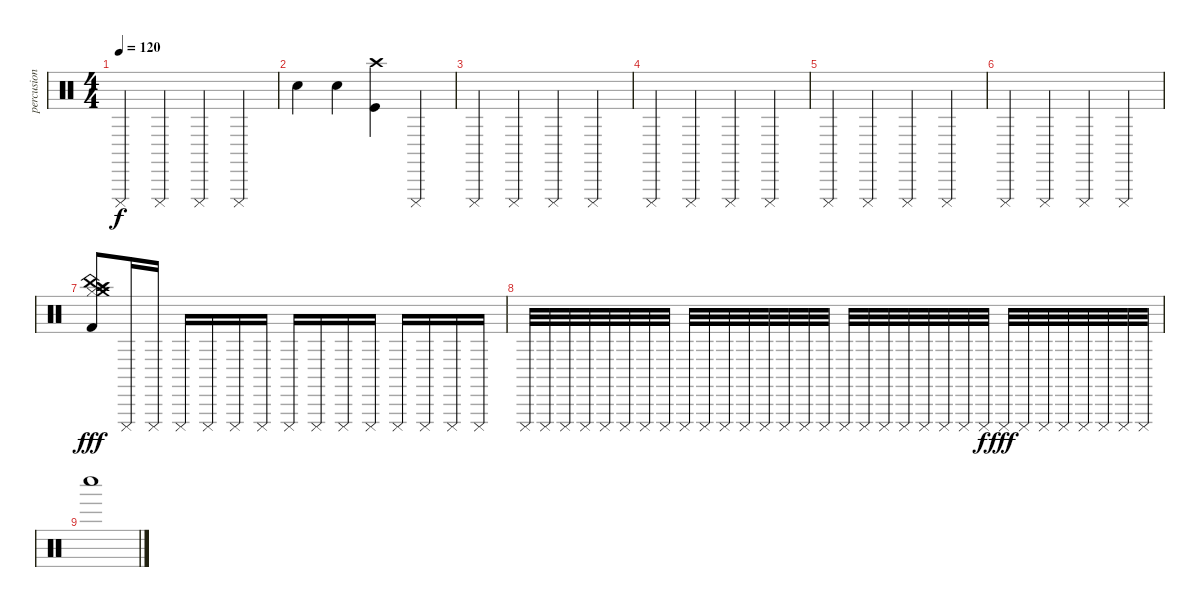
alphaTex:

\track ("percusion de mierda" "percusion ") {instrument percussion}
\staff {score}
\articulation defaults
\ts (4 4)
\tempo 120
\clef neutral
\ks c "Cuica (mute)".4{dy f} "Cuica (mute)".4 "Cuica (mute)".4 "Cuica (mute)".4
|
"Electric Snare (hit)".4 "Electric Snare (hit)".4 ("Crash high (hit)" "Kick (hit)").4 "Cuica (mute)".4 |
"Cuica (mute)".4 "Cuica (mute)".4 "Cuica (mute)".4 "Cuica (mute)".4 |
"Cuica (mute)".4 "Cuica (mute)".4 "Cuica (mute)".4 "Cuica (mute)".4 |
"Cuica (mute)".4 "Cuica (mute)".4 "Cuica (mute)".4 "Cuica (mute)".4 |
"Cuica (mute)".4 "Cuica (mute)".4 "Cuica (mute)".4 "Cuica (mute)".4 |
("China (hit)" "Kick (hit) 2" "Hi-Hat (closed)" "Splash (hit)" "Crash medium (hit)" "Crash high (hit)").8{dy fff} "Cuica (mute)".16 "Cuica (mute)".16 "Cuica (mute)".16 "Cuica (mute)".16 "Cuica (mute)".16 "Cuica (mute)".16 "Cuica (mute)".16 "Cuica (mute)".16 "Cuica (mute)".16 "Cuica (mute)".16 "Cuica (mute)".16 "Cuica (mute)".16 "Cuica (mute)".16 "Cuica (mute)".16 |
"Cuica (mute)".32 "Cuica (mute)".32 "Cuica (mute)".32 "Cuica (mute)".32 "Cuica (mute)".32 "Cuica (mute)".32 "Cuica (mute)".32 "Cuica (mute)".32 "Cuica (mute)".32 "Cuica (mute)".32 "Cuica (mute)".32 "Cuica (mute)".32 "Cuica (mute)".32 "Cuica (mute)".32 "Cuica (mute)".32 "Cuica (mute)".32 "Cuica (mute)".32 "Cuica (mute)".32 "Cuica (mute)".32 "Cuica (mute)".32 "Cuica (mute)".32 "Cuica (mute)".32 "Cuica (mute)".32 "Cuica (mute)".32{dy f} "Cuica (mute)".32{dy fff} "Cuica (mute)".32 "Cuica (mute)".32 "Cuica (mute)".32 "Cuica (mute)".32 "Cuica (mute)".32 "Cuica (mute)".32 "Cuica (mute)".32 |
"Whistle low (hit)".1
